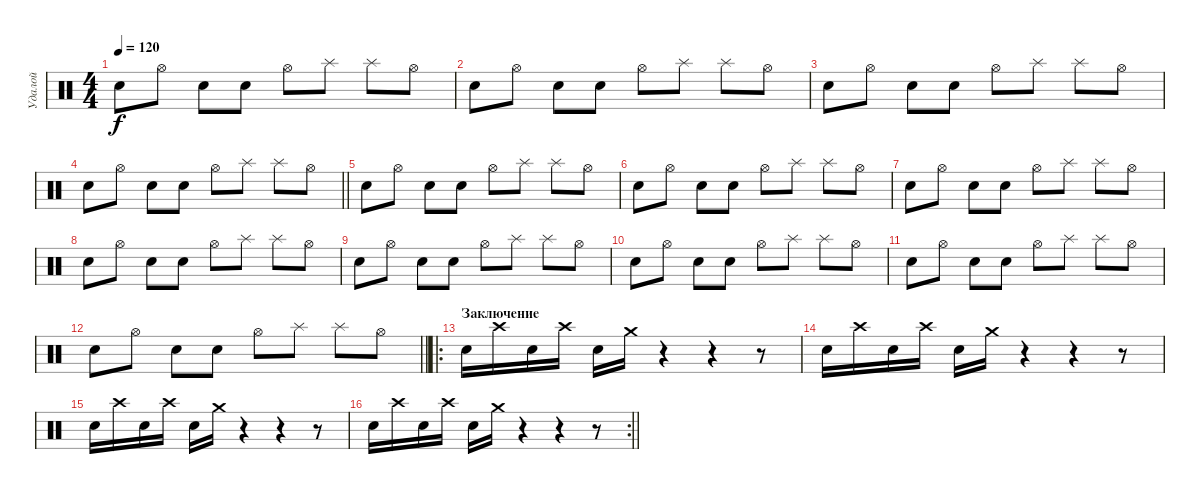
\track ("Удалой" "Удалой") {instrument percussion}
\staff {score}
\articulation defaults
\ts (4 4)
\tempo 120
\clef neutral
\ks c "Snare (hit) 2".8{dy f} "Hi-Hat (open)".8 "Snare (hit) 2".8 "Snare (hit) 2".8 "Hi-Hat (open)".8 "Splash (hit)".8 "Splash (hit)".8 "Hi-Hat (open)".8
|
"Snare (hit) 2".8 "Hi-Hat (open)".8 "Snare (hit) 2".8 "Snare (hit) 2".8 "Hi-Hat (open)".8 "Splash (hit)".8 "Splash (hit)".8 "Hi-Hat (open)".8 |
"Snare (hit) 2".8 "Hi-Hat (open)".8 "Snare (hit) 2".8 "Snare (hit) 2".8 "Hi-Hat (open)".8 "Splash (hit)".8 "Splash (hit)".8 "Hi-Hat (open)".8 |
\barLineRight lightlight "Snare (hit) 2".8 "Hi-Hat (open)".8 "Snare (hit) 2".8 "Snare (hit) 2".8 "Hi-Hat (open)".8 "Splash (hit)".8 "Splash (hit)".8 "Hi-Hat (open)".8
|
"Snare (hit) 2".8 "Hi-Hat (open)".8 "Snare (hit) 2".8 "Snare (hit) 2".8 "Hi-Hat (open)".8 "Splash (hit)".8 "Splash (hit)".8 "Hi-Hat (open)".8 |
"Snare (hit) 2".8 "Hi-Hat (open)".8 "Snare (hit) 2".8 "Snare (hit) 2".8 "Hi-Hat (open)".8 "Splash (hit)".8 "Splash (hit)".8 "Hi-Hat (open)".8 |
"Snare (hit) 2".8 "Hi-Hat (open)".8 "Snare (hit) 2".8 "Snare (hit) 2".8 "Hi-Hat (open)".8 "Splash (hit)".8 "Splash (hit)".8 "Hi-Hat (open)".8 |
"Snare (hit) 2".8 "Hi-Hat (open)".8 "Snare (hit) 2".8 "Snare (hit) 2".8 "Hi-Hat (open)".8 "Splash (hit)".8 "Splash (hit)".8 "Hi-Hat (open)".8 |
"Snare (hit) 2".8 "Hi-Hat (open)".8 "Snare (hit) 2".8 "Snare (hit) 2".8 "Hi-Hat (open)".8 "Splash (hit)".8 "Splash (hit)".8 "Hi-Hat (open)".8 |
"Snare (hit) 2".8 "Hi-Hat (open)".8 "Snare (hit) 2".8 "Snare (hit) 2".8 "Hi-Hat (open)".8 "Splash (hit)".8 "Splash (hit)".8 "Hi-Hat (open)".8 |
"Snare (hit) 2".8 "Hi-Hat (open)".8 "Snare (hit) 2".8 "Snare (hit) 2".8 "Hi-Hat (open)".8 "Splash (hit)".8 "Splash (hit)".8 "Hi-Hat (open)".8 |
\barLineRight lightlight "Snare (hit) 2".8 "Hi-Hat (open)".8 "Snare (hit) 2".8 "Snare (hit) 2".8 "Hi-Hat (open)".8 "Splash (hit)".8 "Splash (hit)".8 "Hi-Hat (open)".8
|
\ro
\section ("" "Заключение")
"Snare (hit) 2".16 "Crash high (hit)".16 "Snare (hit) 2".16 "Crash high (hit)".16 "Snare (hit) 2".16 "Crash medium (hit)".16 r.4 r.4 r.8 |
"Snare (hit) 2".16 "Crash high (hit)".16 "Snare (hit) 2".16 "Crash high (hit)".16 "Snare (hit) 2".16 "Crash medium (hit)".16 r.4 r.4 r.8 |
"Snare (hit) 2".16 "Crash high (hit)".16 "Snare (hit) 2".16 "Crash high (hit)".16 "Snare (hit) 2".16 "Crash medium (hit)".16 r.4 r.4 r.8 |
\rc 2
\barLineRight lightlight "Snare (hit) 2".16 "Crash high (hit)".16 "Snare (hit) 2".16 "Crash high (hit)".16 "Snare (hit) 2".16 "Crash medium (hit)".16
r.4 r.4 r.8
